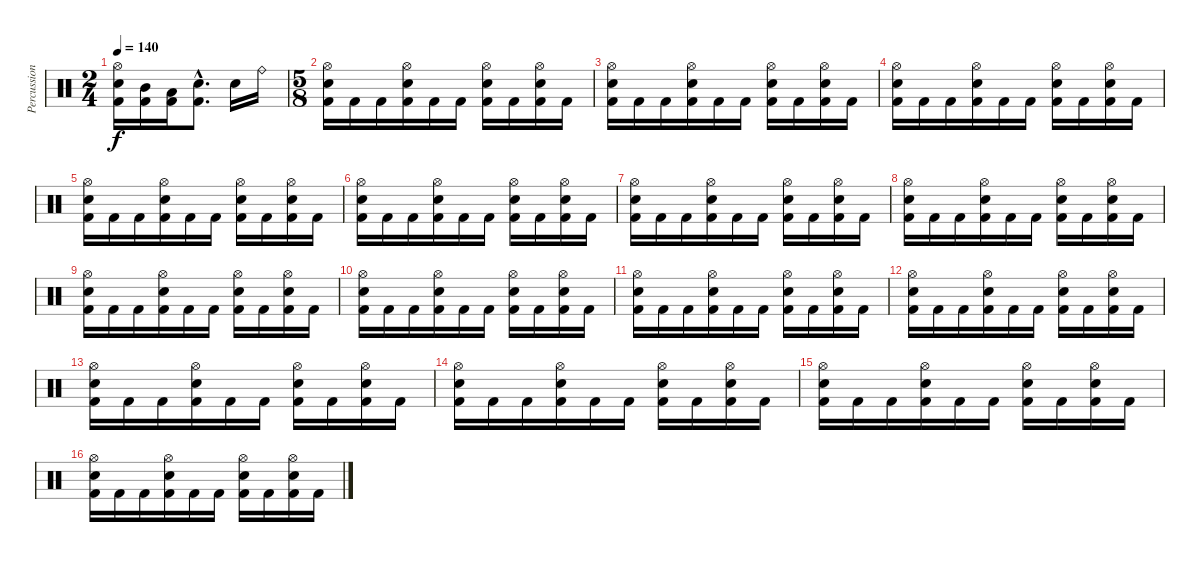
\track ("Percussion" "Percussion") {instrument percussion}
\staff {score}
\articulation defaults
\ts (2 4)
\tempo 140
\clef neutral
\ks c
("Hi-Hat (open)" "Electric Snare (hit)" "Kick (hit) 2").16{dy f} ("Mid Tom (hit)" "Kick (hit) 2").16 ("Low Tom (hit)" "Kick (hit) 2").16 ("Electric Snare (hit)"{hac} "Kick (hit) 2"{hac}).8{d} "Electric Snare (hit)".16 "Ride (bell)".16 |
\ts (5 8)
("Hi-Hat (open)" "Electric Snare (hit)" "Kick (hit) 2").16 "Kick (hit) 2".16 "Kick (hit) 2".16 ("Hi-Hat (open)" "Electric Snare (hit)" "Kick (hit) 2").16 "Kick (hit) 2".16 "Kick (hit) 2".16 ("Hi-Hat (open)" "Electric Snare (hit)" "Kick (hit) 2").16 "Kick (hit) 2".16 ("Hi-Hat (open)" "Electric Snare (hit)" "Kick (hit) 2").16 "Kick (hit) 2".16 |
("Hi-Hat (open)" "Electric Snare (hit)" "Kick (hit) 2").16 "Kick (hit) 2".16 "Kick (hit) 2".16 ("Hi-Hat (open)" "Electric Snare (hit)" "Kick (hit) 2").16 "Kick (hit) 2".16 "Kick (hit) 2".16 ("Hi-Hat (open)" "Electric Snare (hit)" "Kick (hit) 2").16 "Kick (hit) 2".16 ("Hi-Hat (open)" "Electric Snare (hit)" "Kick (hit) 2").16 "Kick (hit) 2".16 |
("Hi-Hat (open)" "Electric Snare (hit)" "Kick (hit) 2").16 "Kick (hit) 2".16 "Kick (hit) 2".16 ("Hi-Hat (open)" "Electric Snare (hit)" "Kick (hit) 2").16 "Kick (hit) 2".16 "Kick (hit) 2".16 ("Hi-Hat (open)" "Electric Snare (hit)" "Kick (hit) 2").16 "Kick (hit) 2".16 ("Hi-Hat (open)" "Electric Snare (hit)" "Kick (hit) 2").16 "Kick (hit) 2".16 |
("Hi-Hat (open)" "Electric Snare (hit)" "Kick (hit) 2").16 "Kick (hit) 2".16 "Kick (hit) 2".16 ("Hi-Hat (open)" "Electric Snare (hit)" "Kick (hit) 2").16 "Kick (hit) 2".16 "Kick (hit) 2".16 ("Hi-Hat (open)" "Electric Snare (hit)" "Kick (hit) 2").16 "Kick (hit) 2".16 ("Hi-Hat (open)" "Electric Snare (hit)" "Kick (hit) 2").16 "Kick (hit) 2".16 |
("Hi-Hat (open)" "Electric Snare (hit)" "Kick (hit) 2").16 "Kick (hit) 2".16 "Kick (hit) 2".16 ("Hi-Hat (open)" "Electric Snare (hit)" "Kick (hit) 2").16 "Kick (hit) 2".16 "Kick (hit) 2".16 ("Hi-Hat (open)" "Electric Snare (hit)" "Kick (hit) 2").16 "Kick (hit) 2".16 ("Hi-Hat (open)" "Electric Snare (hit)" "Kick (hit) 2").16 "Kick (hit) 2".16 |
("Hi-Hat (open)" "Electric Snare (hit)" "Kick (hit) 2").16 "Kick (hit) 2".16 "Kick (hit) 2".16 ("Hi-Hat (open)" "Electric Snare (hit)" "Kick (hit) 2").16 "Kick (hit) 2".16 "Kick (hit) 2".16 ("Hi-Hat (open)" "Electric Snare (hit)" "Kick (hit) 2").16 "Kick (hit) 2".16 ("Hi-Hat (open)" "Electric Snare (hit)" "Kick (hit) 2").16 "Kick (hit) 2".16 |
("Hi-Hat (open)" "Electric Snare (hit)" "Kick (hit) 2").16 "Kick (hit) 2".16 "Kick (hit) 2".16 ("Hi-Hat (open)" "Electric Snare (hit)" "Kick (hit) 2").16 "Kick (hit) 2".16 "Kick (hit) 2".16 ("Hi-Hat (open)" "Electric Snare (hit)" "Kick (hit) 2").16 "Kick (hit) 2".16 ("Hi-Hat (open)" "Electric Snare (hit)" "Kick (hit) 2").16 "Kick (hit) 2".16 |
("Hi-Hat (open)" "Electric Snare (hit)" "Kick (hit) 2").16 "Kick (hit) 2".16 "Kick (hit) 2".16 ("Hi-Hat (open)" "Electric Snare (hit)" "Kick (hit) 2").16 "Kick (hit) 2".16 "Kick (hit) 2".16 ("Hi-Hat (open)" "Electric Snare (hit)" "Kick (hit) 2").16 "Kick (hit) 2".16 ("Hi-Hat (open)" "Electric Snare (hit)" "Kick (hit) 2").16 "Kick (hit) 2".16 |
("Hi-Hat (open)" "Electric Snare (hit)" "Kick (hit) 2").16 "Kick (hit) 2".16 "Kick (hit) 2".16 ("Hi-Hat (open)" "Electric Snare (hit)" "Kick (hit) 2").16 "Kick (hit) 2".16 "Kick (hit) 2".16 ("Hi-Hat (open)" "Electric Snare (hit)" "Kick (hit) 2").16 "Kick (hit) 2".16 ("Hi-Hat (open)" "Electric Snare (hit)" "Kick (hit) 2").16 "Kick (hit) 2".16 |
("Hi-Hat (open)" "Electric Snare (hit)" "Kick (hit) 2").16 "Kick (hit) 2".16 "Kick (hit) 2".16 ("Hi-Hat (open)" "Electric Snare (hit)" "Kick (hit) 2").16 "Kick (hit) 2".16 "Kick (hit) 2".16 ("Hi-Hat (open)" "Electric Snare (hit)" "Kick (hit) 2").16 "Kick (hit) 2".16 ("Hi-Hat (open)" "Electric Snare (hit)" "Kick (hit) 2").16 "Kick (hit) 2".16 |
("Hi-Hat (open)" "Electric Snare (hit)" "Kick (hit) 2").16 "Kick (hit) 2".16 "Kick (hit) 2".16 ("Hi-Hat (open)" "Electric Snare (hit)" "Kick (hit) 2").16 "Kick (hit) 2".16 "Kick (hit) 2".16 ("Hi-Hat (open)" "Electric Snare (hit)" "Kick (hit) 2").16 "Kick (hit) 2".16 ("Hi-Hat (open)" "Electric Snare (hit)" "Kick (hit) 2").16 "Kick (hit) 2".16 |
("Hi-Hat (open)" "Electric Snare (hit)" "Kick (hit) 2").16 "Kick (hit) 2".16 "Kick (hit) 2".16 ("Hi-Hat (open)" "Electric Snare (hit)" "Kick (hit) 2").16 "Kick (hit) 2".16 "Kick (hit) 2".16 ("Hi-Hat (open)" "Electric Snare (hit)" "Kick (hit) 2").16 "Kick (hit) 2".16 ("Hi-Hat (open)" "Electric Snare (hit)" "Kick (hit) 2").16 "Kick (hit) 2".16 |
("Hi-Hat (open)" "Electric Snare (hit)" "Kick (hit) 2").16 "Kick (hit) 2".16 "Kick (hit) 2".16 ("Hi-Hat (open)" "Electric Snare (hit)" "Kick (hit) 2").16 "Kick (hit) 2".16 "Kick (hit) 2".16 ("Hi-Hat (open)" "Electric Snare (hit)" "Kick (hit) 2").16 "Kick (hit) 2".16 ("Hi-Hat (open)" "Electric Snare (hit)" "Kick (hit) 2").16 "Kick (hit) 2".16 |
("Hi-Hat (open)" "Electric Snare (hit)" "Kick (hit) 2").16 "Kick (hit) 2".16 "Kick (hit) 2".16 ("Hi-Hat (open)" "Electric Snare (hit)" "Kick (hit) 2").16 "Kick (hit) 2".16 "Kick (hit) 2".16 ("Hi-Hat (open)" "Electric Snare (hit)" "Kick (hit) 2").16 "Kick (hit) 2".16 ("Hi-Hat (open)" "Electric Snare (hit)" "Kick (hit) 2").16 "Kick (hit) 2".16 |
("Hi-Hat (open)" "Electric Snare (hit)" "Kick (hit) 2").16 "Kick (hit) 2".16 "Kick (hit) 2".16 ("Hi-Hat (open)" "Electric Snare (hit)" "Kick (hit) 2").16 "Kick (hit) 2".16 "Kick (hit) 2".16 ("Hi-Hat (open)" "Electric Snare (hit)" "Kick (hit) 2").16 "Kick (hit) 2".16 ("Hi-Hat (open)" "Electric Snare (hit)" "Kick (hit) 2").16 "Kick (hit) 2".16
